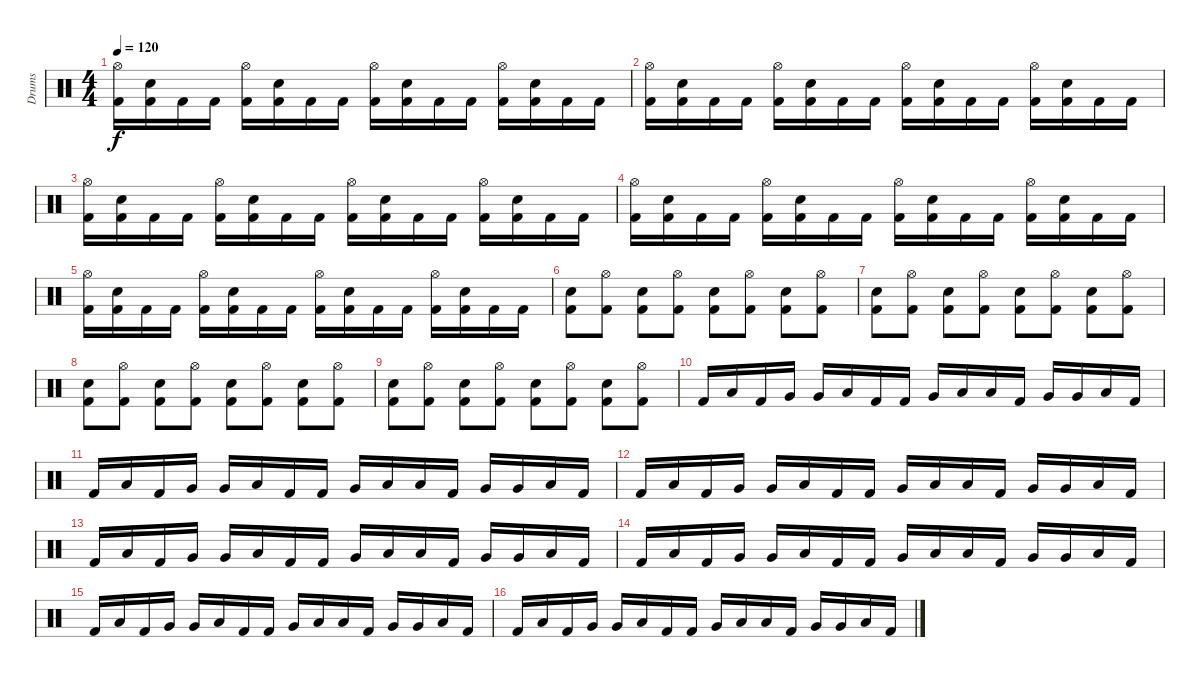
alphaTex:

\track ("Drums" "Drums") {instrument percussion}
\staff {score}
\articulation defaults
\ts (4 4)
\tempo 120
\clef neutral
\ks c
("Hi-Hat (open)" "Kick (hit) 2").16{dy f} ("Snare (hit) 2" "Kick (hit) 2").16 "Kick (hit) 2".16 "Kick (hit) 2".16 ("Hi-Hat (open)" "Kick (hit) 2").16 ("Snare (hit) 2" "Kick (hit) 2").16 "Kick (hit) 2".16 "Kick (hit) 2".16 ("Hi-Hat (open)" "Kick (hit) 2").16 ("Snare (hit) 2" "Kick (hit) 2").16 "Kick (hit) 2".16 "Kick (hit) 2".16 ("Hi-Hat (open)" "Kick (hit) 2").16 ("Snare (hit) 2" "Kick (hit) 2").16 "Kick (hit) 2".16 "Kick (hit) 2".16 |
("Hi-Hat (open)" "Kick (hit) 2").16 ("Snare (hit) 2" "Kick (hit) 2").16 "Kick (hit) 2".16 "Kick (hit) 2".16 ("Hi-Hat (open)" "Kick (hit) 2").16 ("Snare (hit) 2" "Kick (hit) 2").16 "Kick (hit) 2".16 "Kick (hit) 2".16 ("Hi-Hat (open)" "Kick (hit) 2").16 ("Snare (hit) 2" "Kick (hit) 2").16 "Kick (hit) 2".16 "Kick (hit) 2".16 ("Hi-Hat (open)" "Kick (hit) 2").16 ("Snare (hit) 2" "Kick (hit) 2").16 "Kick (hit) 2".16 "Kick (hit) 2".16 |
("Hi-Hat (open)" "Kick (hit) 2").16 ("Snare (hit) 2" "Kick (hit) 2").16 "Kick (hit) 2".16 "Kick (hit) 2".16 ("Hi-Hat (open)" "Kick (hit) 2").16 ("Snare (hit) 2" "Kick (hit) 2").16 "Kick (hit) 2".16 "Kick (hit) 2".16 ("Hi-Hat (open)" "Kick (hit) 2").16 ("Snare (hit) 2" "Kick (hit) 2").16 "Kick (hit) 2".16 "Kick (hit) 2".16 ("Hi-Hat (open)" "Kick (hit) 2").16 ("Snare (hit) 2" "Kick (hit) 2").16 "Kick (hit) 2".16 "Kick (hit) 2".16 |
("Hi-Hat (open)" "Kick (hit) 2").16 ("Snare (hit) 2" "Kick (hit) 2").16 "Kick (hit) 2".16 "Kick (hit) 2".16 ("Hi-Hat (open)" "Kick (hit) 2").16 ("Snare (hit) 2" "Kick (hit) 2").16 "Kick (hit) 2".16 "Kick (hit) 2".16 ("Hi-Hat (open)" "Kick (hit) 2").16 ("Snare (hit) 2" "Kick (hit) 2").16 "Kick (hit) 2".16 "Kick (hit) 2".16 ("Hi-Hat (open)" "Kick (hit) 2").16 ("Snare (hit) 2" "Kick (hit) 2").16 "Kick (hit) 2".16 "Kick (hit) 2".16 |
("Hi-Hat (open)" "Kick (hit) 2").16 ("Snare (hit) 2" "Kick (hit) 2").16 "Kick (hit) 2".16 "Kick (hit) 2".16 ("Hi-Hat (open)" "Kick (hit) 2").16 ("Snare (hit) 2" "Kick (hit) 2").16 "Kick (hit) 2".16 "Kick (hit) 2".16 ("Hi-Hat (open)" "Kick (hit) 2").16 ("Snare (hit) 2" "Kick (hit) 2").16 "Kick (hit) 2".16 "Kick (hit) 2".16 ("Hi-Hat (open)" "Kick (hit) 2").16 ("Snare (hit) 2" "Kick (hit) 2").16 "Kick (hit) 2".16 "Kick (hit) 2".16 |
("Snare (hit) 2" "Kick (hit) 2").8 ("Hi-Hat (open)" "Kick (hit) 2").8 ("Snare (hit) 2" "Kick (hit) 2").8 ("Hi-Hat (open)" "Kick (hit) 2").8 ("Snare (hit) 2" "Kick (hit) 2").8 ("Hi-Hat (open)" "Kick (hit) 2").8 ("Snare (hit) 2" "Kick (hit) 2").8 ("Hi-Hat (open)" "Kick (hit) 2").8 |
("Snare (hit) 2" "Kick (hit) 2").8 ("Hi-Hat (open)" "Kick (hit) 2").8 ("Snare (hit) 2" "Kick (hit) 2").8 ("Hi-Hat (open)" "Kick (hit) 2").8 ("Snare (hit) 2" "Kick (hit) 2").8 ("Hi-Hat (open)" "Kick (hit) 2").8 ("Snare (hit) 2" "Kick (hit) 2").8 ("Hi-Hat (open)" "Kick (hit) 2").8 |
("Snare (hit) 2" "Kick (hit) 2").8 ("Hi-Hat (open)" "Kick (hit) 2").8 ("Snare (hit) 2" "Kick (hit) 2").8 ("Hi-Hat (open)" "Kick (hit) 2").8 ("Snare (hit) 2" "Kick (hit) 2").8 ("Hi-Hat (open)" "Kick (hit) 2").8 ("Snare (hit) 2" "Kick (hit) 2").8 ("Hi-Hat (open)" "Kick (hit) 2").8 |
("Snare (hit) 2" "Kick (hit) 2").8 ("Hi-Hat (open)" "Kick (hit) 2").8 ("Snare (hit) 2" "Kick (hit) 2").8 ("Hi-Hat (open)" "Kick (hit) 2").8 ("Snare (hit) 2" "Kick (hit) 2").8 ("Hi-Hat (open)" "Kick (hit) 2").8 ("Snare (hit) 2" "Kick (hit) 2").8 ("Hi-Hat (open)" "Kick (hit) 2").8 |
"Kick (hit) 2".16 "Low Tom (hit)".16 "Kick (hit) 2".16 "Very Low Tom (hit)".16 "Very Low Tom (hit)".16 "Low Tom (hit)".16 "Kick (hit) 2".16 "Kick (hit) 2".16 "Very Low Tom (hit)".16 "Low Tom (hit)".16 "Low Tom (hit)".16 "Kick (hit) 2".16 "Very Low Tom (hit)".16 "Very Low Tom (hit)".16 "Low Tom (hit)".16 "Kick (hit) 2".16 |
"Kick (hit) 2".16 "Low Tom (hit)".16 "Kick (hit) 2".16 "Very Low Tom (hit)".16 "Very Low Tom (hit)".16 "Low Tom (hit)".16 "Kick (hit) 2".16 "Kick (hit) 2".16 "Very Low Tom (hit)".16 "Low Tom (hit)".16 "Low Tom (hit)".16 "Kick (hit) 2".16 "Very Low Tom (hit)".16 "Very Low Tom (hit)".16 "Low Tom (hit)".16 "Kick (hit) 2".16 |
"Kick (hit) 2".16 "Low Tom (hit)".16 "Kick (hit) 2".16 "Very Low Tom (hit)".16 "Very Low Tom (hit)".16 "Low Tom (hit)".16 "Kick (hit) 2".16 "Kick (hit) 2".16 "Very Low Tom (hit)".16 "Low Tom (hit)".16 "Low Tom (hit)".16 "Kick (hit) 2".16 "Very Low Tom (hit)".16 "Very Low Tom (hit)".16 "Low Tom (hit)".16 "Kick (hit) 2".16 |
"Kick (hit) 2".16 "Low Tom (hit)".16 "Kick (hit) 2".16 "Very Low Tom (hit)".16 "Very Low Tom (hit)".16 "Low Tom (hit)".16 "Kick (hit) 2".16 "Kick (hit) 2".16 "Very Low Tom (hit)".16 "Low Tom (hit)".16 "Low Tom (hit)".16 "Kick (hit) 2".16 "Very Low Tom (hit)".16 "Very Low Tom (hit)".16 "Low Tom (hit)".16 "Kick (hit) 2".16 |
"Kick (hit) 2".16 "Low Tom (hit)".16 "Kick (hit) 2".16 "Very Low Tom (hit)".16 "Very Low Tom (hit)".16 "Low Tom (hit)".16 "Kick (hit) 2".16 "Kick (hit) 2".16 "Very Low Tom (hit)".16 "Low Tom (hit)".16 "Low Tom (hit)".16 "Kick (hit) 2".16 "Very Low Tom (hit)".16 "Very Low Tom (hit)".16 "Low Tom (hit)".16 "Kick (hit) 2".16 |
"Kick (hit) 2".16 "Low Tom (hit)".16 "Kick (hit) 2".16 "Very Low Tom (hit)".16 "Very Low Tom (hit)".16 "Low Tom (hit)".16 "Kick (hit) 2".16 "Kick (hit) 2".16 "Very Low Tom (hit)".16 "Low Tom (hit)".16 "Low Tom (hit)".16 "Kick (hit) 2".16 "Very Low Tom (hit)".16 "Very Low Tom (hit)".16 "Low Tom (hit)".16 "Kick (hit) 2".16 |
"Kick (hit) 2".16 "Low Tom (hit)".16 "Kick (hit) 2".16 "Very Low Tom (hit)".16 "Very Low Tom (hit)".16 "Low Tom (hit)".16 "Kick (hit) 2".16 "Kick (hit) 2".16 "Very Low Tom (hit)".16 "Low Tom (hit)".16 "Low Tom (hit)".16 "Kick (hit) 2".16 "Very Low Tom (hit)".16 "Very Low Tom (hit)".16 "Low Tom (hit)".16 "Kick (hit) 2".16
